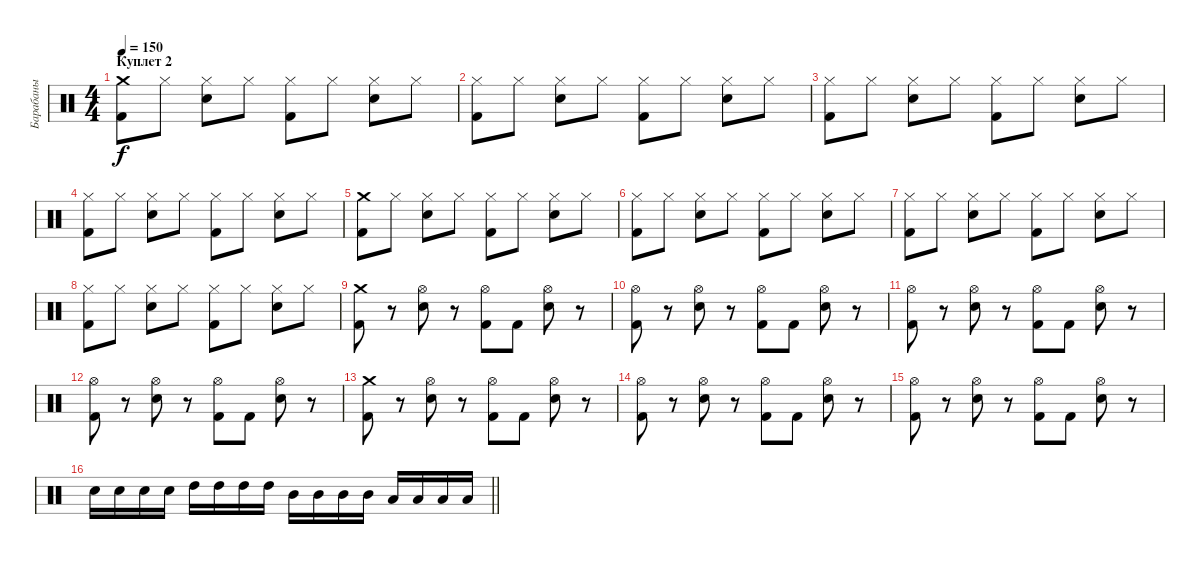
\track ("Барабаны" "Барабаны") {instrument percussion}
\staff {score}
\articulation defaults
\ts (4 4)
\section ("" "Куплет 2 ")
\tempo 150
\clef neutral
\ks c
("Crash medium (hit)" "Kick (hit) 2").8{dy f} "Hi-Hat (closed)".8 ("Hi-Hat (closed)" "Electric Snare (hit)").8 "Hi-Hat (closed)".8 ("Hi-Hat (closed)" "Kick (hit) 2").8 "Hi-Hat (closed)".8 ("Hi-Hat (closed)" "Electric Snare (hit)").8 "Hi-Hat (closed)".8 |
("Hi-Hat (closed)" "Kick (hit) 2").8 "Hi-Hat (closed)".8 ("Hi-Hat (closed)" "Electric Snare (hit)").8 "Hi-Hat (closed)".8 ("Hi-Hat (closed)" "Kick (hit) 2").8 "Hi-Hat (closed)".8 ("Hi-Hat (closed)" "Electric Snare (hit)").8 "Hi-Hat (closed)".8 |
("Hi-Hat (closed)" "Kick (hit) 2").8 "Hi-Hat (closed)".8 ("Hi-Hat (closed)" "Electric Snare (hit)").8 "Hi-Hat (closed)".8 ("Hi-Hat (closed)" "Kick (hit) 2").8 "Hi-Hat (closed)".8 ("Hi-Hat (closed)" "Electric Snare (hit)").8 "Hi-Hat (closed)".8 |
("Hi-Hat (closed)" "Kick (hit) 2").8 "Hi-Hat (closed)".8 ("Hi-Hat (closed)" "Electric Snare (hit)").8 "Hi-Hat (closed)".8 ("Hi-Hat (closed)" "Kick (hit) 2").8 "Hi-Hat (closed)".8 ("Hi-Hat (closed)" "Electric Snare (hit)").8 "Hi-Hat (closed)".8 |
("Crash medium (hit)" "Kick (hit) 2").8 "Hi-Hat (closed)".8 ("Hi-Hat (closed)" "Electric Snare (hit)").8 "Hi-Hat (closed)".8 ("Hi-Hat (closed)" "Kick (hit) 2").8 "Hi-Hat (closed)".8 ("Hi-Hat (closed)" "Electric Snare (hit)").8 "Hi-Hat (closed)".8 |
("Hi-Hat (closed)" "Kick (hit) 2").8 "Hi-Hat (closed)".8 ("Hi-Hat (closed)" "Electric Snare (hit)").8 "Hi-Hat (closed)".8 ("Hi-Hat (closed)" "Kick (hit) 2").8 "Hi-Hat (closed)".8 ("Hi-Hat (closed)" "Electric Snare (hit)").8 "Hi-Hat (closed)".8 |
("Hi-Hat (closed)" "Kick (hit) 2").8 "Hi-Hat (closed)".8 ("Hi-Hat (closed)" "Electric Snare (hit)").8 "Hi-Hat (closed)".8 ("Hi-Hat (closed)" "Kick (hit) 2").8 "Hi-Hat (closed)".8 ("Hi-Hat (closed)" "Electric Snare (hit)").8 "Hi-Hat (closed)".8 |
("Hi-Hat (closed)" "Kick (hit) 2").8 "Hi-Hat (closed)".8 ("Hi-Hat (closed)" "Electric Snare (hit)").8 "Hi-Hat (closed)".8 ("Hi-Hat (closed)" "Kick (hit) 2").8 "Hi-Hat (closed)".8 ("Hi-Hat (closed)" "Electric Snare (hit)").8 "Hi-Hat (closed)".8 |
("Crash medium (hit)" "Kick (hit) 2").8 r.8 ("Hi-Hat (open)" "Electric Snare (hit)").8 r.8 ("Hi-Hat (open)" "Kick (hit) 2").8 "Kick (hit) 2".8 ("Hi-Hat (open)" "Electric Snare (hit)").8 r.8 |
("Hi-Hat (open)" "Kick (hit) 2").8 r.8 ("Hi-Hat (open)" "Electric Snare (hit)").8 r.8 ("Hi-Hat (open)" "Kick (hit) 2").8 "Kick (hit) 2".8 ("Hi-Hat (open)" "Electric Snare (hit)").8 r.8 |
("Hi-Hat (open)" "Kick (hit) 2").8 r.8 ("Hi-Hat (open)" "Electric Snare (hit)").8 r.8 ("Hi-Hat (open)" "Kick (hit) 2").8 "Kick (hit) 2".8 ("Hi-Hat (open)" "Electric Snare (hit)").8 r.8 |
("Hi-Hat (open)" "Kick (hit) 2").8 r.8 ("Hi-Hat (open)" "Electric Snare (hit)").8 r.8 ("Hi-Hat (open)" "Kick (hit) 2").8 "Kick (hit) 2".8 ("Hi-Hat (open)" "Electric Snare (hit)").8 r.8 |
("Crash medium (hit)" "Kick (hit) 2").8 r.8 ("Hi-Hat (open)" "Electric Snare (hit)").8 r.8 ("Hi-Hat (open)" "Kick (hit) 2").8 "Kick (hit) 2".8 ("Hi-Hat (open)" "Electric Snare (hit)").8 r.8 |
("Hi-Hat (open)" "Kick (hit) 2").8 r.8 ("Hi-Hat (open)" "Electric Snare (hit)").8 r.8 ("Hi-Hat (open)" "Kick (hit) 2").8 "Kick (hit) 2".8 ("Hi-Hat (open)" "Electric Snare (hit)").8 r.8 |
("Hi-Hat (open)" "Kick (hit) 2").8 r.8 ("Hi-Hat (open)" "Electric Snare (hit)").8 r.8 ("Hi-Hat (open)" "Kick (hit) 2").8 "Kick (hit) 2".8 ("Hi-Hat (open)" "Electric Snare (hit)").8 r.8 |
\barLineRight lightlight "Electric Snare (hit)".16 "Electric Snare (hit)".16 "Electric Snare (hit)".16 "Electric Snare (hit)".16 "High Tom (hit)".16 "High Tom (hit)".16 "High Tom (hit)".16 "High Tom (hit)".16 "Mid Tom (hit)".16 "Mid Tom (hit)".16 "Mid Tom (hit)".16 "Mid Tom (hit)".16 "Low Tom (hit)".16 "Low Tom (hit)".16 "Low Tom (hit)".16 "Low Tom (hit)".16
